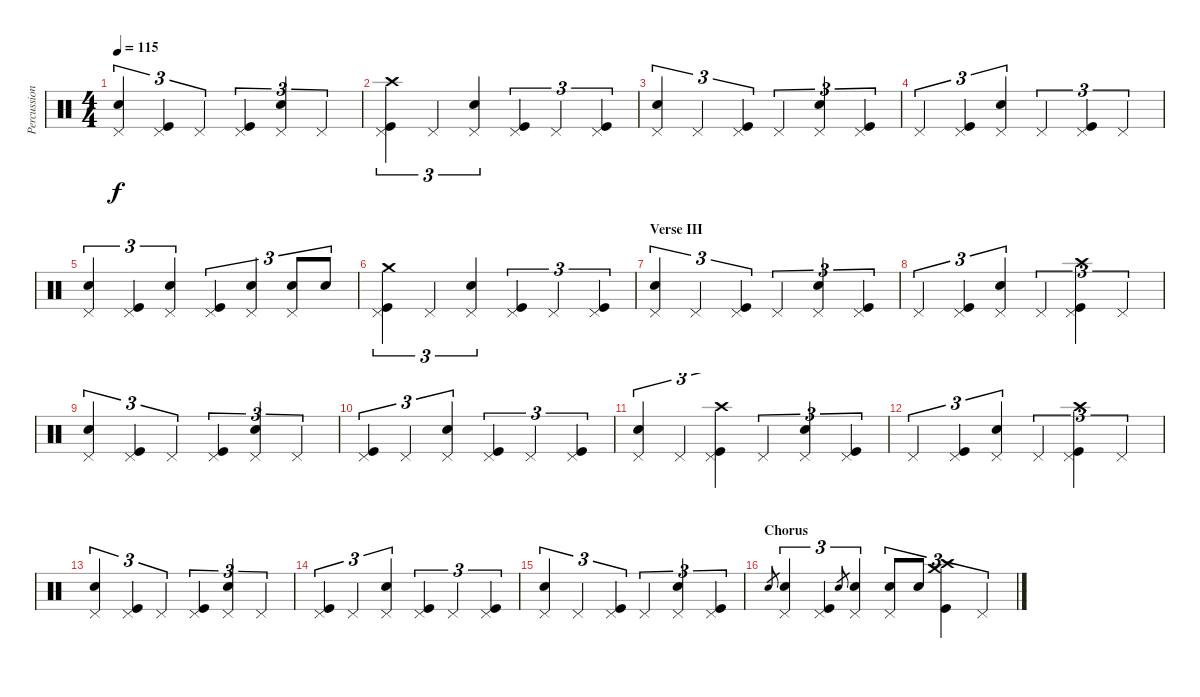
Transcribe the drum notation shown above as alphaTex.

\track ("Percussion" "Percussion") {instrument percussion}
\staff {score}
\articulation defaults
\ts (4 4)
\tempo 115
\clef neutral
\ks c
("Pedal Hi-Hat (hit)" "Electric Snare (hit)").4{tu (3 2) dy f} ("Pedal Hi-Hat (hit)" "Kick (hit)").4{tu (3 2)} "Pedal Hi-Hat (hit)".4{tu (3 2)} ("Pedal Hi-Hat (hit)" "Kick (hit)").4{tu (3 2)} ("Pedal Hi-Hat (hit)" "Electric Snare (hit)").4{tu (3 2)} "Pedal Hi-Hat (hit)".4{tu (3 2)} |
("Crash high (hit)" "Pedal Hi-Hat (hit)" "Kick (hit)").4{tu (3 2)} "Pedal Hi-Hat (hit)".4{tu (3 2)} ("Pedal Hi-Hat (hit)" "Electric Snare (hit)").4{tu (3 2)} ("Pedal Hi-Hat (hit)" "Kick (hit)").4{tu (3 2)} "Pedal Hi-Hat (hit)".4{tu (3 2)} ("Pedal Hi-Hat (hit)" "Kick (hit)").4{tu (3 2)} |
("Pedal Hi-Hat (hit)" "Electric Snare (hit)").4{tu (3 2)} "Pedal Hi-Hat (hit)".4{tu (3 2)} ("Pedal Hi-Hat (hit)" "Kick (hit)").4{tu (3 2)} "Pedal Hi-Hat (hit)".4{tu (3 2)} ("Pedal Hi-Hat (hit)" "Electric Snare (hit)").4{tu (3 2)} ("Pedal Hi-Hat (hit)" "Kick (hit)").4{tu (3 2)} |
"Pedal Hi-Hat (hit)".4{tu (3 2)} ("Pedal Hi-Hat (hit)" "Kick (hit)").4{tu (3 2)} ("Pedal Hi-Hat (hit)" "Electric Snare (hit)").4{tu (3 2)} "Pedal Hi-Hat (hit)".4{tu (3 2)} ("Pedal Hi-Hat (hit)" "Kick (hit)").4{tu (3 2)} "Pedal Hi-Hat (hit)".4{tu (3 2)} |
("Pedal Hi-Hat (hit)" "Electric Snare (hit)").4{tu (3 2)} ("Pedal Hi-Hat (hit)" "Kick (hit)").4{tu (3 2)} ("Pedal Hi-Hat (hit)" "Electric Snare (hit)").4{tu (3 2)} ("Pedal Hi-Hat (hit)" "Kick (hit)").4{tu (3 2)} ("Pedal Hi-Hat (hit)" "Electric Snare (hit)").4{tu (3 2)} ("Pedal Hi-Hat (hit)" "Electric Snare (hit)").8{tu (3 2)} "Electric Snare (hit)".8{tu (3 2)} |
("Crash medium (hit)" "Pedal Hi-Hat (hit)" "Kick (hit)").4{tu (3 2)} "Pedal Hi-Hat (hit)".4{tu (3 2)} ("Pedal Hi-Hat (hit)" "Electric Snare (hit)").4{tu (3 2)} ("Pedal Hi-Hat (hit)" "Kick (hit)").4{tu (3 2)} "Pedal Hi-Hat (hit)".4{tu (3 2)} ("Pedal Hi-Hat (hit)" "Kick (hit)").4{tu (3 2)} |
\section ("" "Verse III")
("Pedal Hi-Hat (hit)" "Electric Snare (hit)").4{tu (3 2)} "Pedal Hi-Hat (hit)".4{tu (3 2)} ("Pedal Hi-Hat (hit)" "Kick (hit)").4{tu (3 2)} "Pedal Hi-Hat (hit)".4{tu (3 2)} ("Pedal Hi-Hat (hit)" "Electric Snare (hit)").4{tu (3 2)} ("Pedal Hi-Hat (hit)" "Kick (hit)").4{tu (3 2)} |
"Pedal Hi-Hat (hit)".4{tu (3 2)} ("Pedal Hi-Hat (hit)" "Kick (hit)").4{tu (3 2)} ("Pedal Hi-Hat (hit)" "Electric Snare (hit)").4{tu (3 2)} "Pedal Hi-Hat (hit)".4{tu (3 2)} ("Crash high (hit)" "Pedal Hi-Hat (hit)" "Kick (hit)").4{tu (3 2)} "Pedal Hi-Hat (hit)".4{tu (3 2)} |
("Pedal Hi-Hat (hit)" "Electric Snare (hit)").4{tu (3 2)} ("Pedal Hi-Hat (hit)" "Kick (hit)").4{tu (3 2)} "Pedal Hi-Hat (hit)".4{tu (3 2)} ("Pedal Hi-Hat (hit)" "Kick (hit)").4{tu (3 2)} ("Pedal Hi-Hat (hit)" "Electric Snare (hit)").4{tu (3 2)} "Pedal Hi-Hat (hit)".4{tu (3 2)} |
("Pedal Hi-Hat (hit)" "Kick (hit)").4{tu (3 2)} "Pedal Hi-Hat (hit)".4{tu (3 2)} ("Pedal Hi-Hat (hit)" "Electric Snare (hit)").4{tu (3 2)} ("Pedal Hi-Hat (hit)" "Kick (hit)").4{tu (3 2)} "Pedal Hi-Hat (hit)".4{tu (3 2)} ("Pedal Hi-Hat (hit)" "Kick (hit)").4{tu (3 2)} |
("Pedal Hi-Hat (hit)" "Electric Snare (hit)").4{tu (3 2)} "Pedal Hi-Hat (hit)".4{tu (3 2)} ("Crash high (hit)" "Pedal Hi-Hat (hit)" "Kick (hit)").4{tu (3 2)} "Pedal Hi-Hat (hit)".4{tu (3 2)} ("Pedal Hi-Hat (hit)" "Electric Snare (hit)").4{tu (3 2)} ("Pedal Hi-Hat (hit)" "Kick (hit)").4{tu (3 2)} |
"Pedal Hi-Hat (hit)".4{tu (3 2)} ("Pedal Hi-Hat (hit)" "Kick (hit)").4{tu (3 2)} ("Pedal Hi-Hat (hit)" "Electric Snare (hit)").4{tu (3 2)} "Pedal Hi-Hat (hit)".4{tu (3 2)} ("Crash high (hit)" "Pedal Hi-Hat (hit)" "Kick (hit)").4{tu (3 2)} "Pedal Hi-Hat (hit)".4{tu (3 2)} |
("Pedal Hi-Hat (hit)" "Electric Snare (hit)").4{tu (3 2)} ("Pedal Hi-Hat (hit)" "Kick (hit)").4{tu (3 2)} "Pedal Hi-Hat (hit)".4{tu (3 2)} ("Pedal Hi-Hat (hit)" "Kick (hit)").4{tu (3 2)} ("Pedal Hi-Hat (hit)" "Electric Snare (hit)").4{tu (3 2)} "Pedal Hi-Hat (hit)".4{tu (3 2)} |
("Pedal Hi-Hat (hit)" "Kick (hit)").4{tu (3 2)} "Pedal Hi-Hat (hit)".4{tu (3 2)} ("Pedal Hi-Hat (hit)" "Electric Snare (hit)").4{tu (3 2)} ("Pedal Hi-Hat (hit)" "Kick (hit)").4{tu (3 2)} "Pedal Hi-Hat (hit)".4{tu (3 2)} ("Pedal Hi-Hat (hit)" "Kick (hit)").4{tu (3 2)} |
("Pedal Hi-Hat (hit)" "Electric Snare (hit)").4{tu (3 2)} "Pedal Hi-Hat (hit)".4{tu (3 2)} ("Pedal Hi-Hat (hit)" "Kick (hit)").4{tu (3 2)} "Pedal Hi-Hat (hit)".4{tu (3 2)} ("Pedal Hi-Hat (hit)" "Electric Snare (hit)").4{tu (3 2)} ("Pedal Hi-Hat (hit)" "Kick (hit)").4{tu (3 2)} |
\section ("" "Chorus")
"Electric Snare (hit)".8{gr} ("Pedal Hi-Hat (hit)" "Electric Snare (hit)").4{tu (3 2)} ("Pedal Hi-Hat (hit)" "Kick (hit)").4{tu (3 2)} "Electric Snare (hit)".8{gr} ("Pedal Hi-Hat (hit)" "Electric Snare (hit)").4{tu (3 2)} ("Pedal Hi-Hat (hit)" "Electric Snare (hit)").8{tu (3 2)} "Electric Snare (hit)".8{tu (3 2)} ("Crash medium (hit)" "Crash high (hit)" "Kick (hit)").4{tu (3 2)} "Pedal Hi-Hat (hit)".4{tu (3 2)}
